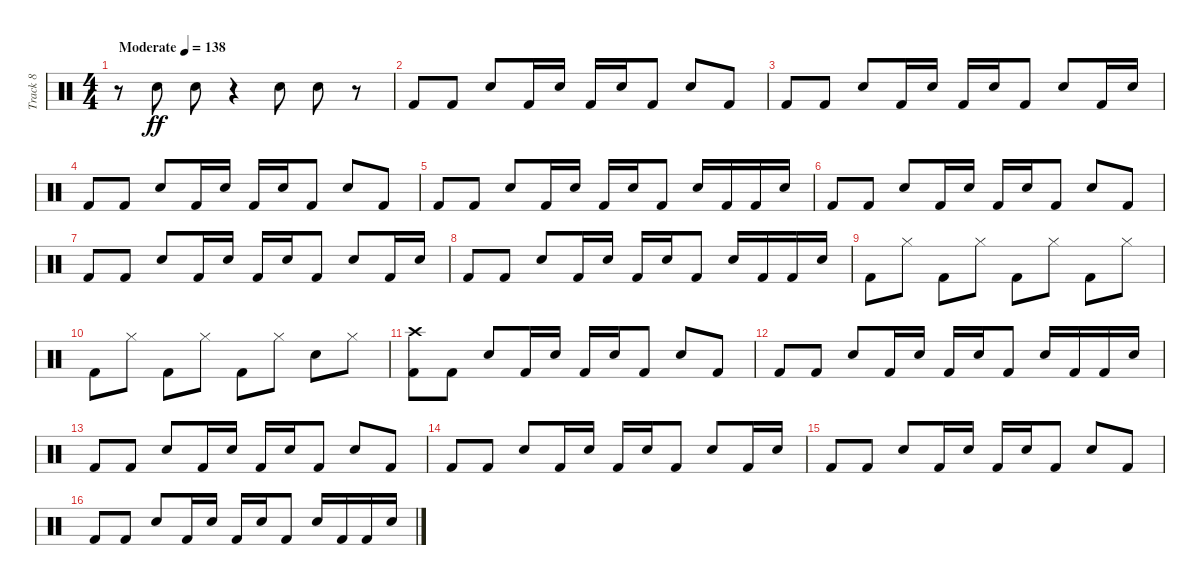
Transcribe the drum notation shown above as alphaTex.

\track ("Track 8" "Track 8") {instrument percussion}
\staff {score}
\articulation defaults
\ts (4 4)
\tempo (138 "Moderate")
\clef neutral
\ks c
r.8{dy ff} "Snare (hit) 2".8 "Snare (hit) 2".8 r.4 "Snare (hit) 2".8 "Snare (hit) 2".8 r.8 |
"Kick (hit) 2".8 "Kick (hit) 2".8 "Snare (hit) 2".8 "Kick (hit) 2".16 "Snare (hit) 2".16 "Kick (hit) 2".16 "Snare (hit) 2".16 "Kick (hit) 2".8 "Snare (hit) 2".8 "Kick (hit) 2".8 |
"Kick (hit) 2".8 "Kick (hit) 2".8 "Snare (hit) 2".8 "Kick (hit) 2".16 "Snare (hit) 2".16 "Kick (hit) 2".16 "Snare (hit) 2".16 "Kick (hit) 2".8 "Snare (hit) 2".8 "Kick (hit) 2".16 "Snare (hit) 2".16 |
"Kick (hit) 2".8 "Kick (hit) 2".8 "Snare (hit) 2".8 "Kick (hit) 2".16 "Snare (hit) 2".16 "Kick (hit) 2".16 "Snare (hit) 2".16 "Kick (hit) 2".8 "Snare (hit) 2".8 "Kick (hit) 2".8 |
"Kick (hit) 2".8 "Kick (hit) 2".8 "Snare (hit) 2".8 "Kick (hit) 2".16 "Snare (hit) 2".16 "Kick (hit) 2".16 "Snare (hit) 2".16 "Kick (hit) 2".8 "Snare (hit) 2".16 "Kick (hit) 2".16 "Kick (hit) 2".16 "Snare (hit) 2".16 |
"Kick (hit) 2".8 "Kick (hit) 2".8 "Snare (hit) 2".8 "Kick (hit) 2".16 "Snare (hit) 2".16 "Kick (hit) 2".16 "Snare (hit) 2".16 "Kick (hit) 2".8 "Snare (hit) 2".8 "Kick (hit) 2".8 |
"Kick (hit) 2".8 "Kick (hit) 2".8 "Snare (hit) 2".8 "Kick (hit) 2".16 "Snare (hit) 2".16 "Kick (hit) 2".16 "Snare (hit) 2".16 "Kick (hit) 2".8 "Snare (hit) 2".8 "Kick (hit) 2".16 "Snare (hit) 2".16 |
"Kick (hit) 2".8 "Kick (hit) 2".8 "Snare (hit) 2".8 "Kick (hit) 2".16 "Snare (hit) 2".16 "Kick (hit) 2".16 "Snare (hit) 2".16 "Kick (hit) 2".8 "Snare (hit) 2".16 "Kick (hit) 2".16 "Kick (hit) 2".16 "Snare (hit) 2".16 |
"Kick (hit) 2".8 "Hi-Hat (closed)".8 "Kick (hit) 2".8 "Hi-Hat (closed)".8 "Kick (hit) 2".8 "Hi-Hat (closed)".8 "Kick (hit) 2".8 "Hi-Hat (closed)".8 |
"Kick (hit) 2".8 "Hi-Hat (closed)".8 "Kick (hit) 2".8 "Hi-Hat (closed)".8 "Kick (hit) 2".8 "Hi-Hat (closed)".8 "Snare (hit) 2".8 "Hi-Hat (closed)".8 |
("Kick (hit) 2" "Crash high (hit)").8 "Kick (hit) 2".8 "Snare (hit) 2".8 "Kick (hit) 2".16 "Snare (hit) 2".16 "Kick (hit) 2".16 "Snare (hit) 2".16 "Kick (hit) 2".8 "Snare (hit) 2".8 "Kick (hit) 2".8 |
"Kick (hit) 2".8 "Kick (hit) 2".8 "Snare (hit) 2".8 "Kick (hit) 2".16 "Snare (hit) 2".16 "Kick (hit) 2".16 "Snare (hit) 2".16 "Kick (hit) 2".8 "Snare (hit) 2".16 "Kick (hit) 2".16 "Kick (hit) 2".16 "Snare (hit) 2".16 |
"Kick (hit) 2".8 "Kick (hit) 2".8 "Snare (hit) 2".8 "Kick (hit) 2".16 "Snare (hit) 2".16 "Kick (hit) 2".16 "Snare (hit) 2".16 "Kick (hit) 2".8 "Snare (hit) 2".8 "Kick (hit) 2".8 |
"Kick (hit) 2".8 "Kick (hit) 2".8 "Snare (hit) 2".8 "Kick (hit) 2".16 "Snare (hit) 2".16 "Kick (hit) 2".16 "Snare (hit) 2".16 "Kick (hit) 2".8 "Snare (hit) 2".8 "Kick (hit) 2".16 "Snare (hit) 2".16 |
"Kick (hit) 2".8 "Kick (hit) 2".8 "Snare (hit) 2".8 "Kick (hit) 2".16 "Snare (hit) 2".16 "Kick (hit) 2".16 "Snare (hit) 2".16 "Kick (hit) 2".8 "Snare (hit) 2".8 "Kick (hit) 2".8 |
"Kick (hit) 2".8 "Kick (hit) 2".8 "Snare (hit) 2".8 "Kick (hit) 2".16 "Snare (hit) 2".16 "Kick (hit) 2".16 "Snare (hit) 2".16 "Kick (hit) 2".8 "Snare (hit) 2".16 "Kick (hit) 2".16 "Kick (hit) 2".16 "Snare (hit) 2".16
